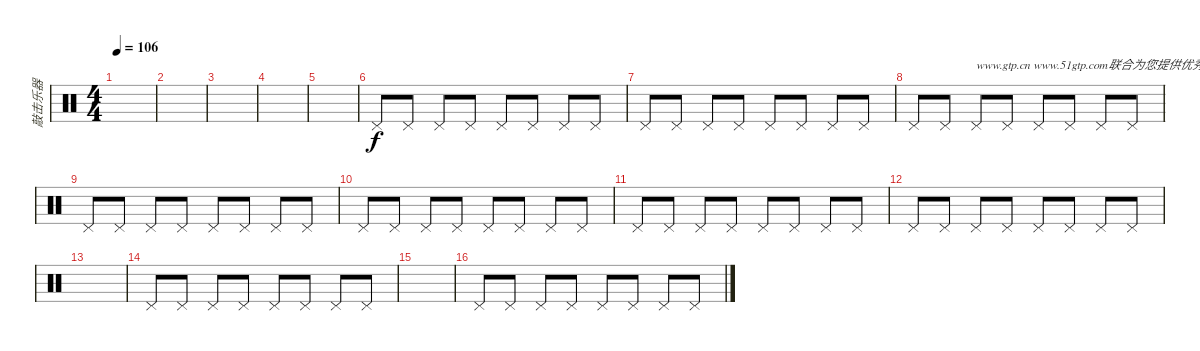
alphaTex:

\track ("敲击乐器" "敲击乐器") {instrument percussion}
\staff {score}
\articulation defaults
\ts (4 4)
\tempo 106
\clef neutral
\ks c
|
|
|
|
|
"Pedal Hi-Hat (hit)".8 "Pedal Hi-Hat (hit)".8 "Pedal Hi-Hat (hit)".8 "Pedal Hi-Hat (hit)".8 "Pedal Hi-Hat (hit)".8 "Pedal Hi-Hat (hit)".8 "Pedal Hi-Hat (hit)".8 "Pedal Hi-Hat (hit)".8 |
"Pedal Hi-Hat (hit)".8 "Pedal Hi-Hat (hit)".8 "Pedal Hi-Hat (hit)".8 "Pedal Hi-Hat (hit)".8 "Pedal Hi-Hat (hit)".8 "Pedal Hi-Hat (hit)".8 "Pedal Hi-Hat (hit)".8 "Pedal Hi-Hat (hit)".8 |
"Pedal Hi-Hat (hit)".8 "Pedal Hi-Hat (hit)".8 "Pedal Hi-Hat (hit)".8{txt "www.gtp.cn www.51gtp.com联合为您提供优秀的GTP!"} "Pedal Hi-Hat (hit)".8 "Pedal Hi-Hat (hit)".8 "Pedal Hi-Hat (hit)".8 "Pedal Hi-Hat (hit)".8 "Pedal Hi-Hat (hit)".8 |
"Pedal Hi-Hat (hit)".8 "Pedal Hi-Hat (hit)".8 "Pedal Hi-Hat (hit)".8 "Pedal Hi-Hat (hit)".8 "Pedal Hi-Hat (hit)".8 "Pedal Hi-Hat (hit)".8 "Pedal Hi-Hat (hit)".8 "Pedal Hi-Hat (hit)".8 |
"Pedal Hi-Hat (hit)".8 "Pedal Hi-Hat (hit)".8 "Pedal Hi-Hat (hit)".8 "Pedal Hi-Hat (hit)".8 "Pedal Hi-Hat (hit)".8 "Pedal Hi-Hat (hit)".8 "Pedal Hi-Hat (hit)".8 "Pedal Hi-Hat (hit)".8 |
"Pedal Hi-Hat (hit)".8 "Pedal Hi-Hat (hit)".8 "Pedal Hi-Hat (hit)".8 "Pedal Hi-Hat (hit)".8 "Pedal Hi-Hat (hit)".8 "Pedal Hi-Hat (hit)".8 "Pedal Hi-Hat (hit)".8 "Pedal Hi-Hat (hit)".8 |
"Pedal Hi-Hat (hit)".8 "Pedal Hi-Hat (hit)".8 "Pedal Hi-Hat (hit)".8 "Pedal Hi-Hat (hit)".8 "Pedal Hi-Hat (hit)".8 "Pedal Hi-Hat (hit)".8 "Pedal Hi-Hat (hit)".8 "Pedal Hi-Hat (hit)".8 |
|
"Pedal Hi-Hat (hit)".8 "Pedal Hi-Hat (hit)".8 "Pedal Hi-Hat (hit)".8 "Pedal Hi-Hat (hit)".8 "Pedal Hi-Hat (hit)".8 "Pedal Hi-Hat (hit)".8 "Pedal Hi-Hat (hit)".8 "Pedal Hi-Hat (hit)".8 |
|
"Pedal Hi-Hat (hit)".8 "Pedal Hi-Hat (hit)".8 "Pedal Hi-Hat (hit)".8 "Pedal Hi-Hat (hit)".8 "Pedal Hi-Hat (hit)".8 "Pedal Hi-Hat (hit)".8 "Pedal Hi-Hat (hit)".8 "Pedal Hi-Hat (hit)".8
